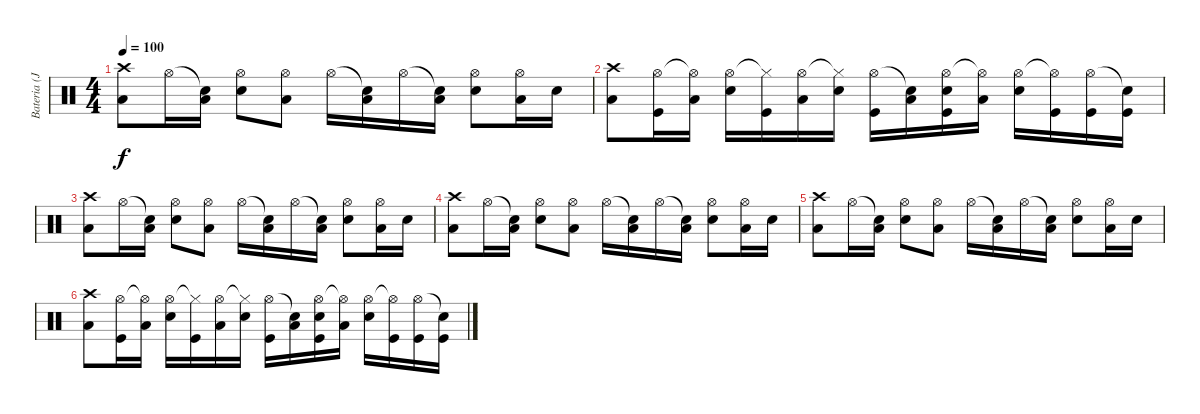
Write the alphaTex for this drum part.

\track ("Bateria (John)" "Bateria (J") {instrument percussion}
\staff {score}
\articulation defaults
\ts (4 4)
\tempo 100
\clef neutral
\ks c
("Crash high (hit)" "Low Tom (hit)").8{dy f} "Hi-Hat (open)".16 ("Snare (hit)"{t} "Low Tom (hit)").16 ("Hi-Hat (open)" "Electric Snare (hit)").8 ("Hi-Hat (open)" "Low Tom (hit)").8 "Hi-Hat (open)".16 ("Snare (hit)"{t} "Low Tom (hit)").16 "Hi-Hat (open)".16 ("Snare (hit)"{t} "Low Tom (hit)").16 ("Hi-Hat (open)" "Electric Snare (hit)").8 ("Hi-Hat (open)" "Low Tom (hit)").16 "Electric Snare (hit)".16 |
("Crash high (hit)" "Low Tom (hit)").8 ("Hi-Hat (open)" "Kick (hit)").16 ("Hi-Hat (open)"{t} "Low Tom (hit)").16 ("Hi-Hat (open)" "Electric Snare (hit)").16 ("Hi-Hat (closed)"{t} "Kick (hit)").16 ("Hi-Hat (open)" "Low Tom (hit)").16 ("Hi-Hat (closed)"{t} "Electric Snare (hit)").16 ("Hi-Hat (open)" "Kick (hit)").16 ("Snare (hit)"{t} "Low Tom (hit)").16 ("Hi-Hat (open)" "Kick (hit)" "Snare (hit)").16 ("Hi-Hat (open)"{t} "Low Tom (hit)").16 ("Hi-Hat (open)" "Electric Snare (hit)").16 ("Hi-Hat (open)"{t} "Kick (hit)").16 ("Hi-Hat (open)" "Kick (hit)").16 ("Snare (hit)"{t} "Kick (hit)").16 |
("Crash high (hit)" "Low Tom (hit)").8 "Hi-Hat (open)".16 ("Snare (hit)"{t} "Low Tom (hit)").16 ("Hi-Hat (open)" "Electric Snare (hit)").8 ("Hi-Hat (open)" "Low Tom (hit)").8 "Hi-Hat (open)".16 ("Snare (hit)"{t} "Low Tom (hit)").16 "Hi-Hat (open)".16 ("Snare (hit)"{t} "Low Tom (hit)").16 ("Hi-Hat (open)" "Electric Snare (hit)").8 ("Hi-Hat (open)" "Low Tom (hit)").16 "Electric Snare (hit)".16 |
("Crash high (hit)" "Low Tom (hit)").8 "Hi-Hat (open)".16 ("Snare (hit)"{t} "Low Tom (hit)").16 ("Hi-Hat (open)" "Electric Snare (hit)").8 ("Hi-Hat (open)" "Low Tom (hit)").8 "Hi-Hat (open)".16 ("Snare (hit)"{t} "Low Tom (hit)").16 "Hi-Hat (open)".16 ("Snare (hit)"{t} "Low Tom (hit)").16 ("Hi-Hat (open)" "Electric Snare (hit)").8 ("Hi-Hat (open)" "Low Tom (hit)").16 "Electric Snare (hit)".16 |
("Crash high (hit)" "Low Tom (hit)").8 "Hi-Hat (open)".16 ("Snare (hit)"{t} "Low Tom (hit)").16 ("Hi-Hat (open)" "Electric Snare (hit)").8 ("Hi-Hat (open)" "Low Tom (hit)").8 "Hi-Hat (open)".16 ("Snare (hit)"{t} "Low Tom (hit)").16 "Hi-Hat (open)".16 ("Snare (hit)"{t} "Low Tom (hit)").16 ("Hi-Hat (open)" "Electric Snare (hit)").8 ("Hi-Hat (open)" "Low Tom (hit)").16 "Electric Snare (hit)".16 |
("Crash high (hit)" "Low Tom (hit)").8 ("Hi-Hat (open)" "Kick (hit)").16 ("Hi-Hat (open)"{t} "Low Tom (hit)").16 ("Hi-Hat (open)" "Electric Snare (hit)").16 ("Hi-Hat (closed)"{t} "Kick (hit)").16 ("Hi-Hat (open)" "Low Tom (hit)").16 ("Hi-Hat (closed)"{t} "Electric Snare (hit)").16 ("Hi-Hat (open)" "Kick (hit)").16 ("Snare (hit)"{t} "Low Tom (hit)").16 ("Hi-Hat (open)" "Kick (hit)" "Snare (hit)").16 ("Hi-Hat (open)"{t} "Low Tom (hit)").16 ("Hi-Hat (open)" "Electric Snare (hit)").16 ("Hi-Hat (open)"{t} "Kick (hit)").16 ("Hi-Hat (open)" "Kick (hit)").16 ("Snare (hit)"{t} "Kick (hit)").16
